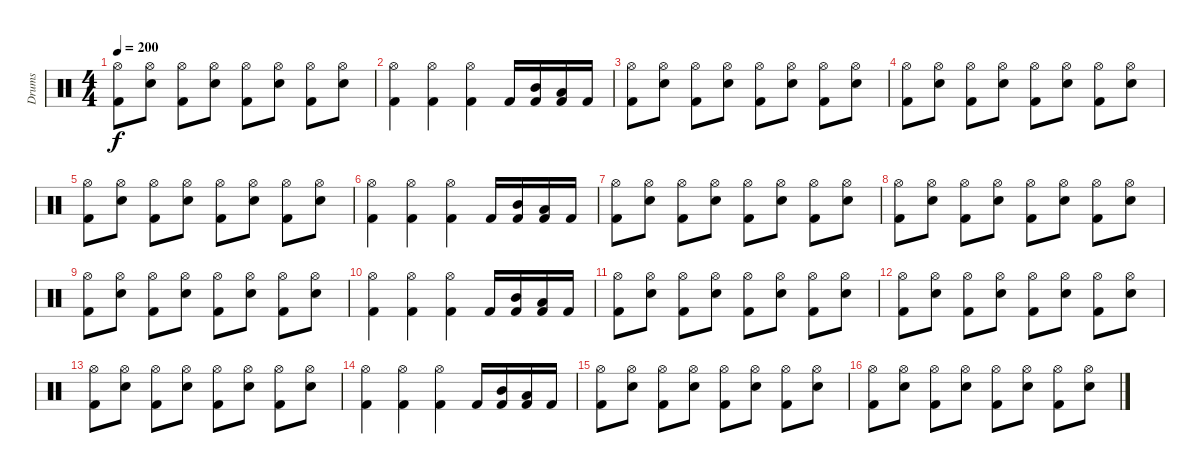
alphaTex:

\track ("Drums" "Drums") {instrument percussion}
\staff {score}
\articulation defaults
\ts (4 4)
\tempo 200
\clef neutral
\ks c
("Hi-Hat (open)" "Kick (hit) 2").8{dy f} ("Hi-Hat (open)" "Electric Snare (hit)").8 ("Hi-Hat (open)" "Kick (hit) 2").8 ("Hi-Hat (open)" "Electric Snare (hit)").8 ("Hi-Hat (open)" "Kick (hit) 2").8 ("Hi-Hat (open)" "Electric Snare (hit)").8 ("Hi-Hat (open)" "Kick (hit) 2").8 ("Hi-Hat (open)" "Electric Snare (hit)").8 |
("Hi-Hat (open)" "Kick (hit) 2").4 ("Hi-Hat (open)" "Kick (hit) 2").4 ("Hi-Hat (open)" "Kick (hit) 2").4 "Kick (hit) 2".16 ("Mid Tom (hit)" "Kick (hit) 2").16 ("Low Tom (hit)" "Kick (hit) 2").16 "Kick (hit) 2".16 |
("Hi-Hat (open)" "Kick (hit) 2").8 ("Hi-Hat (open)" "Electric Snare (hit)").8 ("Hi-Hat (open)" "Kick (hit) 2").8 ("Hi-Hat (open)" "Electric Snare (hit)").8 ("Hi-Hat (open)" "Kick (hit) 2").8 ("Hi-Hat (open)" "Electric Snare (hit)").8 ("Hi-Hat (open)" "Kick (hit) 2").8 ("Hi-Hat (open)" "Electric Snare (hit)").8 |
("Hi-Hat (open)" "Kick (hit) 2").8 ("Hi-Hat (open)" "Electric Snare (hit)").8 ("Hi-Hat (open)" "Kick (hit) 2").8 ("Hi-Hat (open)" "Electric Snare (hit)").8 ("Hi-Hat (open)" "Kick (hit) 2").8 ("Hi-Hat (open)" "Electric Snare (hit)").8 ("Hi-Hat (open)" "Kick (hit) 2").8 ("Hi-Hat (open)" "Electric Snare (hit)").8 |
("Hi-Hat (open)" "Kick (hit) 2").8 ("Hi-Hat (open)" "Electric Snare (hit)").8 ("Hi-Hat (open)" "Kick (hit) 2").8 ("Hi-Hat (open)" "Electric Snare (hit)").8 ("Hi-Hat (open)" "Kick (hit) 2").8 ("Hi-Hat (open)" "Electric Snare (hit)").8 ("Hi-Hat (open)" "Kick (hit) 2").8 ("Hi-Hat (open)" "Electric Snare (hit)").8 |
("Hi-Hat (open)" "Kick (hit) 2").4 ("Hi-Hat (open)" "Kick (hit) 2").4 ("Hi-Hat (open)" "Kick (hit) 2").4 "Kick (hit) 2".16 ("Mid Tom (hit)" "Kick (hit) 2").16 ("Low Tom (hit)" "Kick (hit) 2").16 "Kick (hit) 2".16 |
("Hi-Hat (open)" "Kick (hit) 2").8 ("Hi-Hat (open)" "Electric Snare (hit)").8 ("Hi-Hat (open)" "Kick (hit) 2").8 ("Hi-Hat (open)" "Electric Snare (hit)").8 ("Hi-Hat (open)" "Kick (hit) 2").8 ("Hi-Hat (open)" "Electric Snare (hit)").8 ("Hi-Hat (open)" "Kick (hit) 2").8 ("Hi-Hat (open)" "Electric Snare (hit)").8 |
("Hi-Hat (open)" "Kick (hit) 2").8 ("Hi-Hat (open)" "Electric Snare (hit)").8 ("Hi-Hat (open)" "Kick (hit) 2").8 ("Hi-Hat (open)" "Electric Snare (hit)").8 ("Hi-Hat (open)" "Kick (hit) 2").8 ("Hi-Hat (open)" "Electric Snare (hit)").8 ("Hi-Hat (open)" "Kick (hit) 2").8 ("Hi-Hat (open)" "Electric Snare (hit)").8 |
("Hi-Hat (open)" "Kick (hit) 2").8 ("Hi-Hat (open)" "Electric Snare (hit)").8 ("Hi-Hat (open)" "Kick (hit) 2").8 ("Hi-Hat (open)" "Electric Snare (hit)").8 ("Hi-Hat (open)" "Kick (hit) 2").8 ("Hi-Hat (open)" "Electric Snare (hit)").8 ("Hi-Hat (open)" "Kick (hit) 2").8 ("Hi-Hat (open)" "Electric Snare (hit)").8 |
("Hi-Hat (open)" "Kick (hit) 2").4 ("Hi-Hat (open)" "Kick (hit) 2").4 ("Hi-Hat (open)" "Kick (hit) 2").4 "Kick (hit) 2".16 ("Mid Tom (hit)" "Kick (hit) 2").16 ("Low Tom (hit)" "Kick (hit) 2").16 "Kick (hit) 2".16 |
("Hi-Hat (open)" "Kick (hit) 2").8 ("Hi-Hat (open)" "Electric Snare (hit)").8 ("Hi-Hat (open)" "Kick (hit) 2").8 ("Hi-Hat (open)" "Electric Snare (hit)").8 ("Hi-Hat (open)" "Kick (hit) 2").8 ("Hi-Hat (open)" "Electric Snare (hit)").8 ("Hi-Hat (open)" "Kick (hit) 2").8 ("Hi-Hat (open)" "Electric Snare (hit)").8 |
("Hi-Hat (open)" "Kick (hit) 2").8 ("Hi-Hat (open)" "Electric Snare (hit)").8 ("Hi-Hat (open)" "Kick (hit) 2").8 ("Hi-Hat (open)" "Electric Snare (hit)").8 ("Hi-Hat (open)" "Kick (hit) 2").8 ("Hi-Hat (open)" "Electric Snare (hit)").8 ("Hi-Hat (open)" "Kick (hit) 2").8 ("Hi-Hat (open)" "Electric Snare (hit)").8 |
("Hi-Hat (open)" "Kick (hit) 2").8 ("Hi-Hat (open)" "Electric Snare (hit)").8 ("Hi-Hat (open)" "Kick (hit) 2").8 ("Hi-Hat (open)" "Electric Snare (hit)").8 ("Hi-Hat (open)" "Kick (hit) 2").8 ("Hi-Hat (open)" "Electric Snare (hit)").8 ("Hi-Hat (open)" "Kick (hit) 2").8 ("Hi-Hat (open)" "Electric Snare (hit)").8 |
("Hi-Hat (open)" "Kick (hit) 2").4 ("Hi-Hat (open)" "Kick (hit) 2").4 ("Hi-Hat (open)" "Kick (hit) 2").4 "Kick (hit) 2".16 ("Mid Tom (hit)" "Kick (hit) 2").16 ("Low Tom (hit)" "Kick (hit) 2").16 "Kick (hit) 2".16 |
("Hi-Hat (open)" "Kick (hit) 2").8 ("Hi-Hat (open)" "Electric Snare (hit)").8 ("Hi-Hat (open)" "Kick (hit) 2").8 ("Hi-Hat (open)" "Electric Snare (hit)").8 ("Hi-Hat (open)" "Kick (hit) 2").8 ("Hi-Hat (open)" "Electric Snare (hit)").8 ("Hi-Hat (open)" "Kick (hit) 2").8 ("Hi-Hat (open)" "Electric Snare (hit)").8 |
("Hi-Hat (open)" "Kick (hit) 2").8 ("Hi-Hat (open)" "Electric Snare (hit)").8 ("Hi-Hat (open)" "Kick (hit) 2").8 ("Hi-Hat (open)" "Electric Snare (hit)").8 ("Hi-Hat (open)" "Kick (hit) 2").8 ("Hi-Hat (open)" "Electric Snare (hit)").8 ("Hi-Hat (open)" "Kick (hit) 2").8 ("Hi-Hat (open)" "Electric Snare (hit)").8
